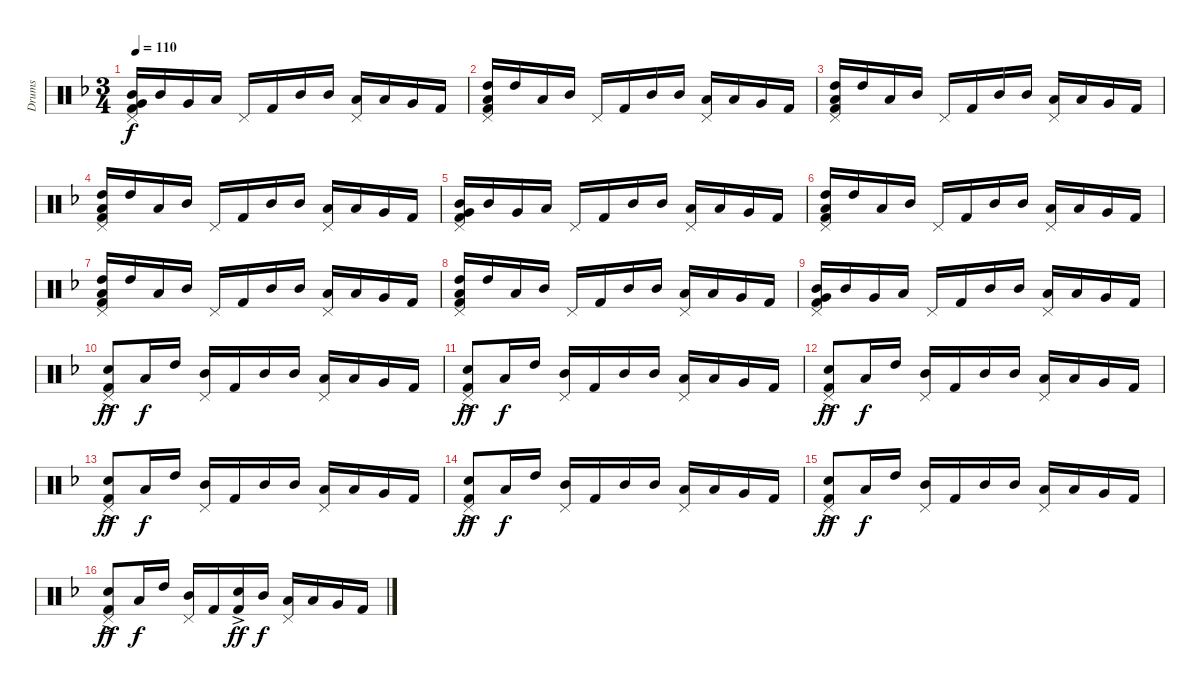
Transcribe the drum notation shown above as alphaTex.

\track ("Drums" "Drums") {instrument percussion}
\staff {score}
\articulation defaults
\ts (3 4)
\tempo 110
\clef neutral
\ks dminor
("Mid Tom (hit)" "Very Low Tom (hit)" "Kick (hit) 2" "Pedal Hi-Hat (hit)").16{dy f} "Mid Tom (hit)".16 "Very Low Tom (hit)".16 "Low Tom (hit)".16 "Pedal Hi-Hat (hit)".16 "Kick (hit) 2".16 "Mid Tom (hit)".16 "Mid Tom (hit)".16 ("Low Tom (hit)" "Pedal Hi-Hat (hit)").16 "Low Tom (hit)".16 "Very Low Tom (hit)".16 "Kick (hit) 2".16 |
("High Tom (hit)" "Low Tom (hit)" "Kick (hit) 2" "Pedal Hi-Hat (hit)").16 "High Tom (hit)".16 "Low Tom (hit)".16 "Mid Tom (hit)".16 "Pedal Hi-Hat (hit)".16 "Kick (hit) 2".16 "Mid Tom (hit)".16 "Mid Tom (hit)".16 ("Low Tom (hit)" "Pedal Hi-Hat (hit)").16 "Low Tom (hit)".16 "Very Low Tom (hit)".16 "Kick (hit) 2".16 |
("High Tom (hit)" "Low Tom (hit)" "Kick (hit) 2" "Pedal Hi-Hat (hit)").16 "High Tom (hit)".16 "Low Tom (hit)".16 "Mid Tom (hit)".16 "Pedal Hi-Hat (hit)".16 "Kick (hit) 2".16 "Mid Tom (hit)".16 "Mid Tom (hit)".16 ("Low Tom (hit)" "Pedal Hi-Hat (hit)").16 "Low Tom (hit)".16 "Very Low Tom (hit)".16 "Kick (hit) 2".16 |
("High Tom (hit)" "Low Tom (hit)" "Kick (hit) 2" "Pedal Hi-Hat (hit)").16 "High Tom (hit)".16 "Low Tom (hit)".16 "Mid Tom (hit)".16 "Pedal Hi-Hat (hit)".16 "Kick (hit) 2".16 "Mid Tom (hit)".16 "Mid Tom (hit)".16 ("Low Tom (hit)" "Pedal Hi-Hat (hit)").16 "Low Tom (hit)".16 "Very Low Tom (hit)".16 "Kick (hit) 2".16 |
("Mid Tom (hit)" "Very Low Tom (hit)" "Kick (hit) 2" "Pedal Hi-Hat (hit)").16 "Mid Tom (hit)".16 "Very Low Tom (hit)".16 "Low Tom (hit)".16 "Pedal Hi-Hat (hit)".16 "Kick (hit) 2".16 "Mid Tom (hit)".16 "Mid Tom (hit)".16 ("Low Tom (hit)" "Pedal Hi-Hat (hit)").16 "Low Tom (hit)".16 "Very Low Tom (hit)".16 "Kick (hit) 2".16 |
("High Tom (hit)" "Low Tom (hit)" "Kick (hit) 2" "Pedal Hi-Hat (hit)").16 "High Tom (hit)".16 "Low Tom (hit)".16 "Mid Tom (hit)".16 "Pedal Hi-Hat (hit)".16 "Kick (hit) 2".16 "Mid Tom (hit)".16 "Mid Tom (hit)".16 ("Low Tom (hit)" "Pedal Hi-Hat (hit)").16 "Low Tom (hit)".16 "Very Low Tom (hit)".16 "Kick (hit) 2".16 |
("High Tom (hit)" "Low Tom (hit)" "Kick (hit) 2" "Pedal Hi-Hat (hit)").16 "High Tom (hit)".16 "Low Tom (hit)".16 "Mid Tom (hit)".16 "Pedal Hi-Hat (hit)".16 "Kick (hit) 2".16 "Mid Tom (hit)".16 "Mid Tom (hit)".16 ("Low Tom (hit)" "Pedal Hi-Hat (hit)").16 "Low Tom (hit)".16 "Very Low Tom (hit)".16 "Kick (hit) 2".16 |
("High Tom (hit)" "Low Tom (hit)" "Kick (hit) 2" "Pedal Hi-Hat (hit)").16 "High Tom (hit)".16 "Low Tom (hit)".16 "Mid Tom (hit)".16 "Pedal Hi-Hat (hit)".16 "Kick (hit) 2".16 "Mid Tom (hit)".16 "Mid Tom (hit)".16 ("Low Tom (hit)" "Pedal Hi-Hat (hit)").16 "Low Tom (hit)".16 "Very Low Tom (hit)".16 "Kick (hit) 2".16 |
("Mid Tom (hit)" "Very Low Tom (hit)" "Kick (hit) 2" "Pedal Hi-Hat (hit)").16 "Mid Tom (hit)".16 "Very Low Tom (hit)".16 "Low Tom (hit)".16 "Pedal Hi-Hat (hit)".16 "Kick (hit) 2".16 "Mid Tom (hit)".16 "Mid Tom (hit)".16 ("Low Tom (hit)" "Pedal Hi-Hat (hit)").16 "Low Tom (hit)".16 "Very Low Tom (hit)".16 "Kick (hit) 2".16 |
("Snare (hit) 2"{ac} "Kick (hit) 2" "Pedal Hi-Hat (hit)").8{dy ff} "Low Tom (hit)".16{dy f} "High Tom (hit)".16 ("Mid Tom (hit)" "Pedal Hi-Hat (hit)").16 "Kick (hit) 2".16 "Mid Tom (hit)".16 "Mid Tom (hit)".16 ("Low Tom (hit)" "Pedal Hi-Hat (hit)").16 "Low Tom (hit)".16 "Very Low Tom (hit)".16 "Kick (hit) 2".16 |
("Snare (hit) 2"{ac} "Kick (hit) 2" "Pedal Hi-Hat (hit)").8{dy ff} "Low Tom (hit)".16{dy f} "High Tom (hit)".16 ("Mid Tom (hit)" "Pedal Hi-Hat (hit)").16 "Kick (hit) 2".16 "Mid Tom (hit)".16 "Mid Tom (hit)".16 ("Low Tom (hit)" "Pedal Hi-Hat (hit)").16 "Low Tom (hit)".16 "Very Low Tom (hit)".16 "Kick (hit) 2".16 |
("Snare (hit) 2"{ac} "Kick (hit) 2" "Pedal Hi-Hat (hit)").8{dy ff} "Low Tom (hit)".16{dy f} "High Tom (hit)".16 ("Mid Tom (hit)" "Pedal Hi-Hat (hit)").16 "Kick (hit) 2".16 "Mid Tom (hit)".16 "Mid Tom (hit)".16 ("Low Tom (hit)" "Pedal Hi-Hat (hit)").16 "Low Tom (hit)".16 "Very Low Tom (hit)".16 "Kick (hit) 2".16 |
("Snare (hit) 2"{ac} "Kick (hit) 2" "Pedal Hi-Hat (hit)").8{dy ff} "Low Tom (hit)".16{dy f} "High Tom (hit)".16 ("Mid Tom (hit)" "Pedal Hi-Hat (hit)").16 "Kick (hit) 2".16 "Mid Tom (hit)".16 "Mid Tom (hit)".16 ("Low Tom (hit)" "Pedal Hi-Hat (hit)").16 "Low Tom (hit)".16 "Very Low Tom (hit)".16 "Kick (hit) 2".16 |
("Snare (hit) 2"{ac} "Kick (hit) 2" "Pedal Hi-Hat (hit)").8{dy ff} "Low Tom (hit)".16{dy f} "High Tom (hit)".16 ("Mid Tom (hit)" "Pedal Hi-Hat (hit)").16 "Kick (hit) 2".16 "Mid Tom (hit)".16 "Mid Tom (hit)".16 ("Low Tom (hit)" "Pedal Hi-Hat (hit)").16 "Low Tom (hit)".16 "Very Low Tom (hit)".16 "Kick (hit) 2".16 |
("Snare (hit) 2"{ac} "Kick (hit) 2" "Pedal Hi-Hat (hit)").8{dy ff} "Low Tom (hit)".16{dy f} "High Tom (hit)".16 ("Mid Tom (hit)" "Pedal Hi-Hat (hit)").16 "Kick (hit) 2".16 "Mid Tom (hit)".16 "Mid Tom (hit)".16 ("Low Tom (hit)" "Pedal Hi-Hat (hit)").16 "Low Tom (hit)".16 "Very Low Tom (hit)".16 "Kick (hit) 2".16 |
("Snare (hit) 2"{ac} "Kick (hit) 2" "Pedal Hi-Hat (hit)").8{dy ff} "Low Tom (hit)".16{dy f} "High Tom (hit)".16 ("Mid Tom (hit)" "Pedal Hi-Hat (hit)").16 "Kick (hit) 2".16 ("Snare (hit) 2"{ac} "Kick (hit) 2").16{dy ff} "Mid Tom (hit)".16{dy f} ("Low Tom (hit)" "Pedal Hi-Hat (hit)").16 "Low Tom (hit)".16 "Very Low Tom (hit)".16 "Kick (hit) 2".16
